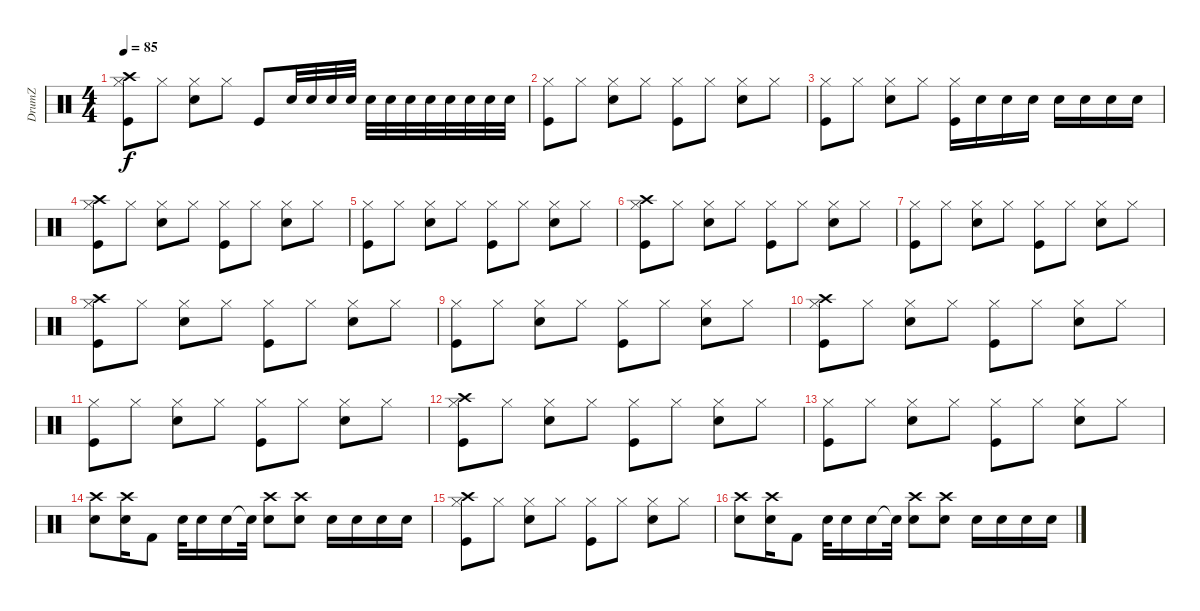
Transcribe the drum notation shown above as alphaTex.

\track ("DrumZ" "DrumZ") {instrument percussion}
\staff {score}
\articulation defaults
\ts (4 4)
\tempo 85
\clef neutral
\ks c
("Hi-Hat (closed)" "Crash high (hit)" "Kick (hit)").8{dy f} "Hi-Hat (closed)".8 ("Hi-Hat (closed)" "Electric Snare (hit)").8 "Hi-Hat (closed)".8 "Kick (hit)".8 "Electric Snare (hit)".32 "Electric Snare (hit)".32 "Electric Snare (hit)".32 "Electric Snare (hit)".32 "Electric Snare (hit)".32 "Electric Snare (hit)".32 "Electric Snare (hit)".32 "Electric Snare (hit)".32 "Electric Snare (hit)".32 "Electric Snare (hit)".32 "Electric Snare (hit)".32 "Electric Snare (hit)".32 |
("Hi-Hat (closed)" "Kick (hit)").8 "Hi-Hat (closed)".8 ("Hi-Hat (closed)" "Electric Snare (hit)").8 "Hi-Hat (closed)".8 ("Hi-Hat (closed)" "Kick (hit)").8 "Hi-Hat (closed)".8 ("Hi-Hat (closed)" "Electric Snare (hit)").8 "Hi-Hat (closed)".8 |
("Hi-Hat (closed)" "Kick (hit)").8 "Hi-Hat (closed)".8 ("Hi-Hat (closed)" "Electric Snare (hit)").8 "Hi-Hat (closed)".8 ("Hi-Hat (closed)" "Kick (hit)").16 "Electric Snare (hit)".16 "Electric Snare (hit)".16 "Electric Snare (hit)".16 "Electric Snare (hit)".16 "Electric Snare (hit)".16 "Electric Snare (hit)".16 "Electric Snare (hit)".16 |
("Hi-Hat (closed)" "Crash high (hit)" "Kick (hit)").8 "Hi-Hat (closed)".8 ("Hi-Hat (closed)" "Electric Snare (hit)").8 "Hi-Hat (closed)".8 ("Hi-Hat (closed)" "Kick (hit)").8 "Hi-Hat (closed)".8 ("Hi-Hat (closed)" "Electric Snare (hit)").8 "Hi-Hat (closed)".8 |
("Hi-Hat (closed)" "Kick (hit)").8 "Hi-Hat (closed)".8 ("Hi-Hat (closed)" "Electric Snare (hit)").8 "Hi-Hat (closed)".8 ("Hi-Hat (closed)" "Kick (hit)").8 "Hi-Hat (closed)".8 ("Hi-Hat (closed)" "Electric Snare (hit)").8 "Hi-Hat (closed)".8 |
("Hi-Hat (closed)" "Crash high (hit)" "Kick (hit)").8 "Hi-Hat (closed)".8 ("Hi-Hat (closed)" "Electric Snare (hit)").8 "Hi-Hat (closed)".8 ("Hi-Hat (closed)" "Kick (hit)").8 "Hi-Hat (closed)".8 ("Hi-Hat (closed)" "Electric Snare (hit)").8 "Hi-Hat (closed)".8 |
("Hi-Hat (closed)" "Kick (hit)").8 "Hi-Hat (closed)".8 ("Hi-Hat (closed)" "Electric Snare (hit)").8 "Hi-Hat (closed)".8 ("Hi-Hat (closed)" "Kick (hit)").8 "Hi-Hat (closed)".8 ("Hi-Hat (closed)" "Electric Snare (hit)").8 "Hi-Hat (closed)".8 |
("Hi-Hat (closed)" "Crash high (hit)" "Kick (hit)").8 "Hi-Hat (closed)".8 ("Hi-Hat (closed)" "Electric Snare (hit)").8 "Hi-Hat (closed)".8 ("Hi-Hat (closed)" "Kick (hit)").8 "Hi-Hat (closed)".8 ("Hi-Hat (closed)" "Electric Snare (hit)").8 "Hi-Hat (closed)".8 |
("Hi-Hat (closed)" "Kick (hit)").8 "Hi-Hat (closed)".8 ("Hi-Hat (closed)" "Electric Snare (hit)").8 "Hi-Hat (closed)".8 ("Hi-Hat (closed)" "Kick (hit)").8 "Hi-Hat (closed)".8 ("Hi-Hat (closed)" "Electric Snare (hit)").8 "Hi-Hat (closed)".8 |
("Hi-Hat (closed)" "Crash high (hit)" "Kick (hit)").8 "Hi-Hat (closed)".8 ("Hi-Hat (closed)" "Electric Snare (hit)").8 "Hi-Hat (closed)".8 ("Hi-Hat (closed)" "Kick (hit)").8 "Hi-Hat (closed)".8 ("Hi-Hat (closed)" "Electric Snare (hit)").8 "Hi-Hat (closed)".8 |
("Hi-Hat (closed)" "Kick (hit)").8 "Hi-Hat (closed)".8 ("Hi-Hat (closed)" "Electric Snare (hit)").8 "Hi-Hat (closed)".8 ("Hi-Hat (closed)" "Kick (hit)").8 "Hi-Hat (closed)".8 ("Hi-Hat (closed)" "Electric Snare (hit)").8 "Hi-Hat (closed)".8 |
("Hi-Hat (closed)" "Crash high (hit)" "Kick (hit)").8 "Hi-Hat (closed)".8 ("Hi-Hat (closed)" "Electric Snare (hit)").8 "Hi-Hat (closed)".8 ("Hi-Hat (closed)" "Kick (hit)").8 "Hi-Hat (closed)".8 ("Hi-Hat (closed)" "Electric Snare (hit)").8 "Hi-Hat (closed)".8 |
("Hi-Hat (closed)" "Kick (hit)").8 "Hi-Hat (closed)".8 ("Hi-Hat (closed)" "Electric Snare (hit)").8 "Hi-Hat (closed)".8 ("Hi-Hat (closed)" "Kick (hit)").8 "Hi-Hat (closed)".8 ("Hi-Hat (closed)" "Electric Snare (hit)").8 "Hi-Hat (closed)".8 |
("Electric Snare (hit)" "Crash high (hit)").8 ("Electric Snare (hit)" "Crash high (hit)").16 "Kick (hit) 2".8 "Electric Snare (hit)".32 "Electric Snare (hit)".16 "Electric Snare (hit)".16 "Snare (hit)"{t}.32 ("Electric Snare (hit)" "Crash high (hit)").8 ("Electric Snare (hit)" "Crash high (hit)").8 "Electric Snare (hit)".16 "Electric Snare (hit)".16 "Electric Snare (hit)".16 "Electric Snare (hit)".16 |
("Hi-Hat (closed)" "Crash high (hit)" "Kick (hit)").8 "Hi-Hat (closed)".8 ("Hi-Hat (closed)" "Electric Snare (hit)").8 "Hi-Hat (closed)".8 ("Hi-Hat (closed)" "Kick (hit)").8 "Hi-Hat (closed)".8 ("Hi-Hat (closed)" "Electric Snare (hit)").8 "Hi-Hat (closed)".8 |
("Electric Snare (hit)" "Crash high (hit)").8 ("Electric Snare (hit)" "Crash high (hit)").16 "Kick (hit) 2".8 "Electric Snare (hit)".32 "Electric Snare (hit)".16 "Electric Snare (hit)".16 "Snare (hit)"{t}.32 ("Electric Snare (hit)" "Crash high (hit)").8 ("Electric Snare (hit)" "Crash high (hit)").8 "Electric Snare (hit)".16 "Electric Snare (hit)".16 "Electric Snare (hit)".16 "Electric Snare (hit)".16
